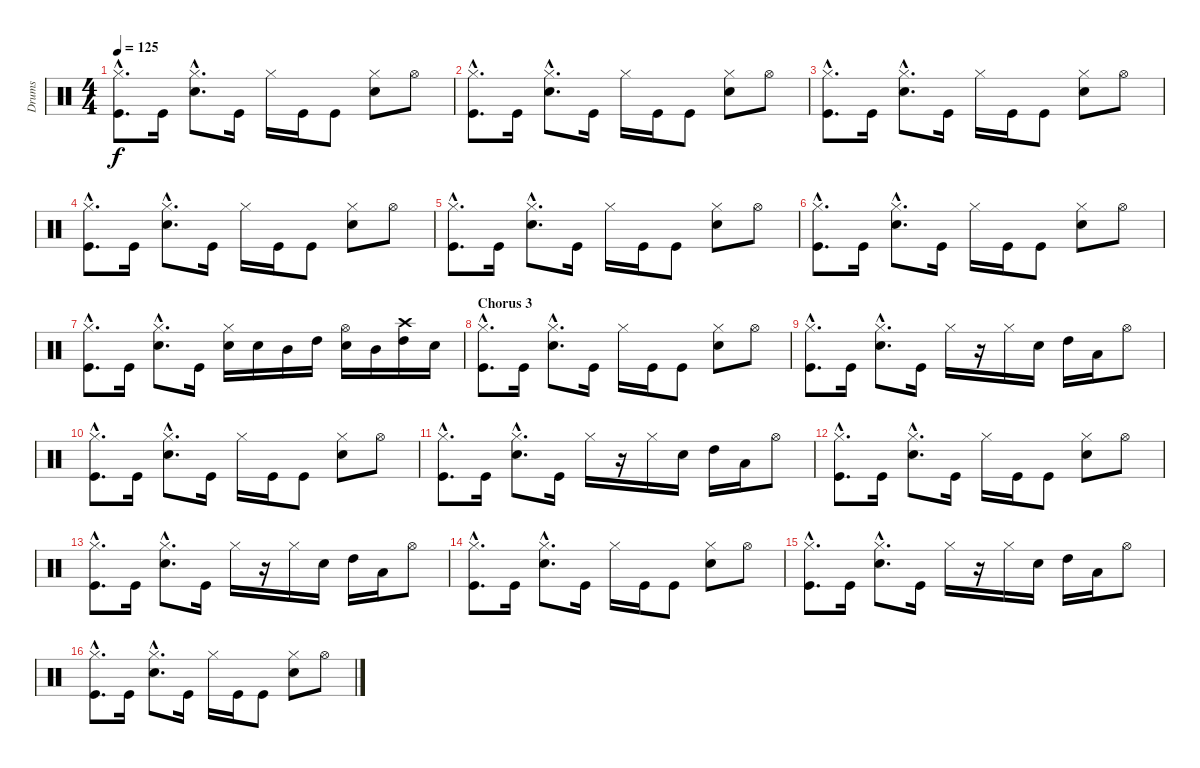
\track ("Drums" "Drums") {instrument percussion}
\staff {score}
\articulation defaults
\ts (4 4)
\tempo 125
\clef neutral
\ks c
("Hi-Hat (closed)"{hac} "Kick (hit)"{hac}).8{d dy f} "Kick (hit)".16 ("Hi-Hat (closed)"{hac} "Electric Snare (hit)"{hac}).8{d} "Kick (hit)".16 "Hi-Hat (closed)".16 "Kick (hit)".16 "Kick (hit)".8 ("Hi-Hat (closed)" "Electric Snare (hit)").8 "Hi-Hat (open)".8 |
("Hi-Hat (closed)"{hac} "Kick (hit)"{hac}).8{d} "Kick (hit)".16 ("Hi-Hat (closed)"{hac} "Electric Snare (hit)"{hac}).8{d} "Kick (hit)".16 "Hi-Hat (closed)".16 "Kick (hit)".16 "Kick (hit)".8 ("Hi-Hat (closed)" "Electric Snare (hit)").8 "Hi-Hat (open)".8 |
("Hi-Hat (closed)"{hac} "Kick (hit)"{hac}).8{d} "Kick (hit)".16 ("Hi-Hat (closed)"{hac} "Electric Snare (hit)"{hac}).8{d} "Kick (hit)".16 "Hi-Hat (closed)".16 "Kick (hit)".16 "Kick (hit)".8 ("Hi-Hat (closed)" "Electric Snare (hit)").8 "Hi-Hat (open)".8 |
("Hi-Hat (closed)"{hac} "Kick (hit)"{hac}).8{d} "Kick (hit)".16 ("Hi-Hat (closed)"{hac} "Electric Snare (hit)"{hac}).8{d} "Kick (hit)".16 "Hi-Hat (closed)".16 "Kick (hit)".16 "Kick (hit)".8 ("Hi-Hat (closed)" "Electric Snare (hit)").8 "Hi-Hat (open)".8 |
("Hi-Hat (closed)"{hac} "Kick (hit)"{hac}).8{d} "Kick (hit)".16 ("Hi-Hat (closed)"{hac} "Electric Snare (hit)"{hac}).8{d} "Kick (hit)".16 "Hi-Hat (closed)".16 "Kick (hit)".16 "Kick (hit)".8 ("Hi-Hat (closed)" "Electric Snare (hit)").8 "Hi-Hat (open)".8 |
("Hi-Hat (closed)"{hac} "Kick (hit)"{hac}).8{d} "Kick (hit)".16 ("Hi-Hat (closed)"{hac} "Electric Snare (hit)"{hac}).8{d} "Kick (hit)".16 "Hi-Hat (closed)".16 "Kick (hit)".16 "Kick (hit)".8 ("Hi-Hat (closed)" "Electric Snare (hit)").8 "Hi-Hat (open)".8 |
("Hi-Hat (closed)"{hac} "Kick (hit)"{hac}).8{d} "Kick (hit)".16 ("Hi-Hat (closed)"{hac} "Electric Snare (hit)"{hac}).8{d} "Kick (hit)".16 ("Hi-Hat (closed)" "Electric Snare (hit)").16 "Electric Snare (hit)".16 "Mid Tom (hit)".16 "High Tom (hit)".16 ("Hi-Hat (open)" "Electric Snare (hit)").16 "Mid Tom (hit)".16 ("Crash high (hit)" "High Tom (hit)").16 "Electric Snare (hit)".16 |
\section ("" "Chorus 3")
("Hi-Hat (closed)"{hac} "Kick (hit)"{hac}).8{d} "Kick (hit)".16 ("Hi-Hat (closed)"{hac} "Electric Snare (hit)"{hac}).8{d} "Kick (hit)".16 "Hi-Hat (closed)".16 "Kick (hit)".16 "Kick (hit)".8 ("Hi-Hat (closed)" "Electric Snare (hit)").8 "Hi-Hat (open)".8 |
("Hi-Hat (closed)"{hac} "Kick (hit)"{hac}).8{d} "Kick (hit)".16 ("Hi-Hat (closed)"{hac} "Electric Snare (hit)"{hac}).8{d} "Kick (hit)".16 "Hi-Hat (closed)".16 r.16 "Hi-Hat (closed)".16 "Electric Snare (hit)".16 "High Tom (hit)".16 "Low Tom (hit)".16 "Hi-Hat (open)".8 |
("Hi-Hat (closed)"{hac} "Kick (hit)"{hac}).8{d} "Kick (hit)".16 ("Hi-Hat (closed)"{hac} "Electric Snare (hit)"{hac}).8{d} "Kick (hit)".16 "Hi-Hat (closed)".16 "Kick (hit)".16 "Kick (hit)".8 ("Hi-Hat (closed)" "Electric Snare (hit)").8 "Hi-Hat (open)".8 |
("Hi-Hat (closed)"{hac} "Kick (hit)"{hac}).8{d} "Kick (hit)".16 ("Hi-Hat (closed)"{hac} "Electric Snare (hit)"{hac}).8{d} "Kick (hit)".16 "Hi-Hat (closed)".16 r.16 "Hi-Hat (closed)".16 "Electric Snare (hit)".16 "High Tom (hit)".16 "Low Tom (hit)".16 "Hi-Hat (open)".8 |
("Hi-Hat (closed)"{hac} "Kick (hit)"{hac}).8{d} "Kick (hit)".16 ("Hi-Hat (closed)"{hac} "Electric Snare (hit)"{hac}).8{d} "Kick (hit)".16 "Hi-Hat (closed)".16 "Kick (hit)".16 "Kick (hit)".8 ("Hi-Hat (closed)" "Electric Snare (hit)").8 "Hi-Hat (open)".8 |
("Hi-Hat (closed)"{hac} "Kick (hit)"{hac}).8{d} "Kick (hit)".16 ("Hi-Hat (closed)"{hac} "Electric Snare (hit)"{hac}).8{d} "Kick (hit)".16 "Hi-Hat (closed)".16 r.16 "Hi-Hat (closed)".16 "Electric Snare (hit)".16 "High Tom (hit)".16 "Low Tom (hit)".16 "Hi-Hat (open)".8 |
("Hi-Hat (closed)"{hac} "Kick (hit)"{hac}).8{d} "Kick (hit)".16 ("Hi-Hat (closed)"{hac} "Electric Snare (hit)"{hac}).8{d} "Kick (hit)".16 "Hi-Hat (closed)".16 "Kick (hit)".16 "Kick (hit)".8 ("Hi-Hat (closed)" "Electric Snare (hit)").8 "Hi-Hat (open)".8 |
("Hi-Hat (closed)"{hac} "Kick (hit)"{hac}).8{d} "Kick (hit)".16 ("Hi-Hat (closed)"{hac} "Electric Snare (hit)"{hac}).8{d} "Kick (hit)".16 "Hi-Hat (closed)".16 r.16 "Hi-Hat (closed)".16 "Electric Snare (hit)".16 "High Tom (hit)".16 "Low Tom (hit)".16 "Hi-Hat (open)".8 |
("Hi-Hat (closed)"{hac} "Kick (hit)"{hac}).8{d} "Kick (hit)".16 ("Hi-Hat (closed)"{hac} "Electric Snare (hit)"{hac}).8{d} "Kick (hit)".16 "Hi-Hat (closed)".16 "Kick (hit)".16 "Kick (hit)".8 ("Hi-Hat (closed)" "Electric Snare (hit)").8 "Hi-Hat (open)".8
